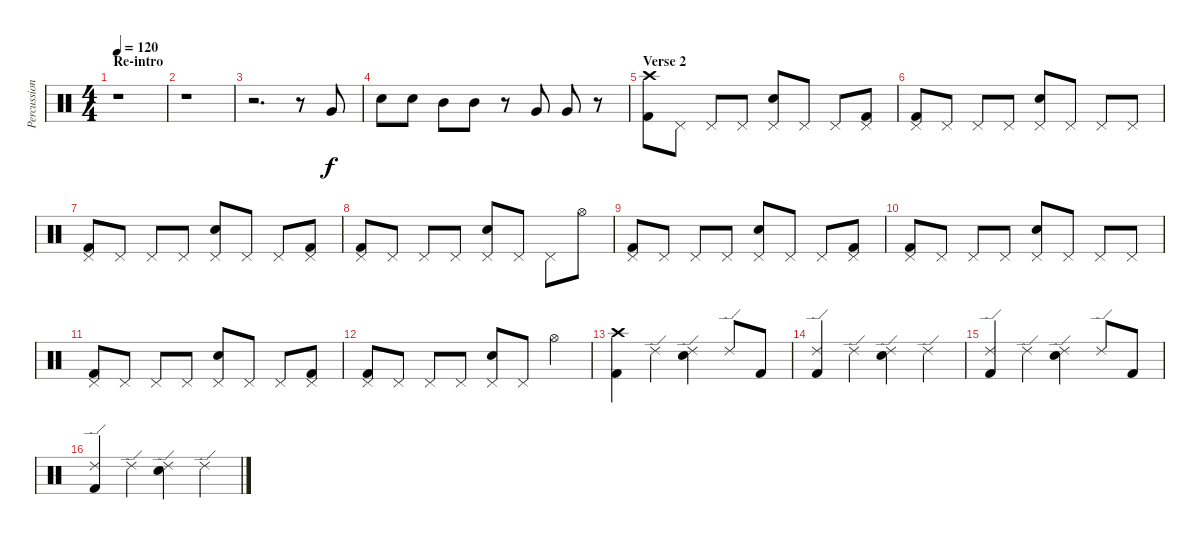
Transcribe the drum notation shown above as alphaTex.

\track ("Percussion" "Percussion") {instrument percussion}
\staff {score}
\articulation defaults
\ts (4 4)
\section ("" "Re-intro")
\tempo 120
\clef neutral
\ks c
r.1{dy f} |
r.1 |
r.2{d} r.8 "Very Low Tom (hit)".8 |
"Snare (hit) 2".8 "Snare (hit) 2".8 "Mid Tom (hit)".8 "Mid Tom (hit)".8 r.8 "Very Low Tom (hit)".8 "Very Low Tom (hit)".8 r.8 |
\section ("" "Verse 2")
("Crash high (hit)" "Kick (hit) 2").8 "Pedal Hi-Hat (hit)".8 "Pedal Hi-Hat (hit)".8 "Pedal Hi-Hat (hit)".8 ("Pedal Hi-Hat (hit)" "Snare (hit) 2").8 "Pedal Hi-Hat (hit)".8 "Pedal Hi-Hat (hit)".8 ("Pedal Hi-Hat (hit)" "Kick (hit) 2").8 |
("Pedal Hi-Hat (hit)" "Kick (hit) 2").8 "Pedal Hi-Hat (hit)".8 "Pedal Hi-Hat (hit)".8 "Pedal Hi-Hat (hit)".8 ("Pedal Hi-Hat (hit)" "Snare (hit) 2").8 "Pedal Hi-Hat (hit)".8 "Pedal Hi-Hat (hit)".8 "Pedal Hi-Hat (hit)".8 |
("Pedal Hi-Hat (hit)" "Kick (hit) 2").8 "Pedal Hi-Hat (hit)".8 "Pedal Hi-Hat (hit)".8 "Pedal Hi-Hat (hit)".8 ("Pedal Hi-Hat (hit)" "Snare (hit) 2").8 "Pedal Hi-Hat (hit)".8 "Pedal Hi-Hat (hit)".8 ("Pedal Hi-Hat (hit)" "Kick (hit) 2").8 |
("Pedal Hi-Hat (hit)" "Kick (hit) 2").8 "Pedal Hi-Hat (hit)".8 "Pedal Hi-Hat (hit)".8 "Pedal Hi-Hat (hit)".8 ("Pedal Hi-Hat (hit)" "Snare (hit) 2").8 "Pedal Hi-Hat (hit)".8 "Pedal Hi-Hat (hit)".8 "Hi-Hat (open)".8 |
("Pedal Hi-Hat (hit)" "Kick (hit) 2").8 "Pedal Hi-Hat (hit)".8 "Pedal Hi-Hat (hit)".8 "Pedal Hi-Hat (hit)".8 ("Pedal Hi-Hat (hit)" "Snare (hit) 2").8 "Pedal Hi-Hat (hit)".8 "Pedal Hi-Hat (hit)".8 ("Pedal Hi-Hat (hit)" "Kick (hit) 2").8 |
("Pedal Hi-Hat (hit)" "Kick (hit) 2").8 "Pedal Hi-Hat (hit)".8 "Pedal Hi-Hat (hit)".8 "Pedal Hi-Hat (hit)".8 ("Pedal Hi-Hat (hit)" "Snare (hit) 2").8 "Pedal Hi-Hat (hit)".8 "Pedal Hi-Hat (hit)".8 "Pedal Hi-Hat (hit)".8 |
("Pedal Hi-Hat (hit)" "Kick (hit) 2").8 "Pedal Hi-Hat (hit)".8 "Pedal Hi-Hat (hit)".8 "Pedal Hi-Hat (hit)".8 ("Pedal Hi-Hat (hit)" "Snare (hit) 2").8 "Pedal Hi-Hat (hit)".8 "Pedal Hi-Hat (hit)".8 ("Pedal Hi-Hat (hit)" "Kick (hit) 2").8 |
("Pedal Hi-Hat (hit)" "Kick (hit) 2").8 "Pedal Hi-Hat (hit)".8 "Pedal Hi-Hat (hit)".8 "Pedal Hi-Hat (hit)".8 ("Pedal Hi-Hat (hit)" "Snare (hit) 2").8 "Pedal Hi-Hat (hit)".8 "Hi-Hat (open)".4 |
("Crash high (hit)" "Kick (hit) 2").4 "Ride (edge) 2".4 ("Ride (edge) 2" "Snare (hit) 2").4 "Ride (edge) 2".8 "Kick (hit) 2".8 |
("Ride (edge) 2" "Kick (hit) 2").4 "Ride (edge) 2".4 ("Ride (edge) 2" "Snare (hit) 2").4 "Ride (edge) 2".4 |
("Ride (edge) 2" "Kick (hit) 2").4 "Ride (edge) 2".4 ("Ride (edge) 2" "Snare (hit) 2").4 "Ride (edge) 2".8 "Kick (hit) 2".8 |
("Ride (edge) 2" "Kick (hit) 2").4 "Ride (edge) 2".4 ("Ride (edge) 2" "Snare (hit) 2").4 "Ride (edge) 2".4
